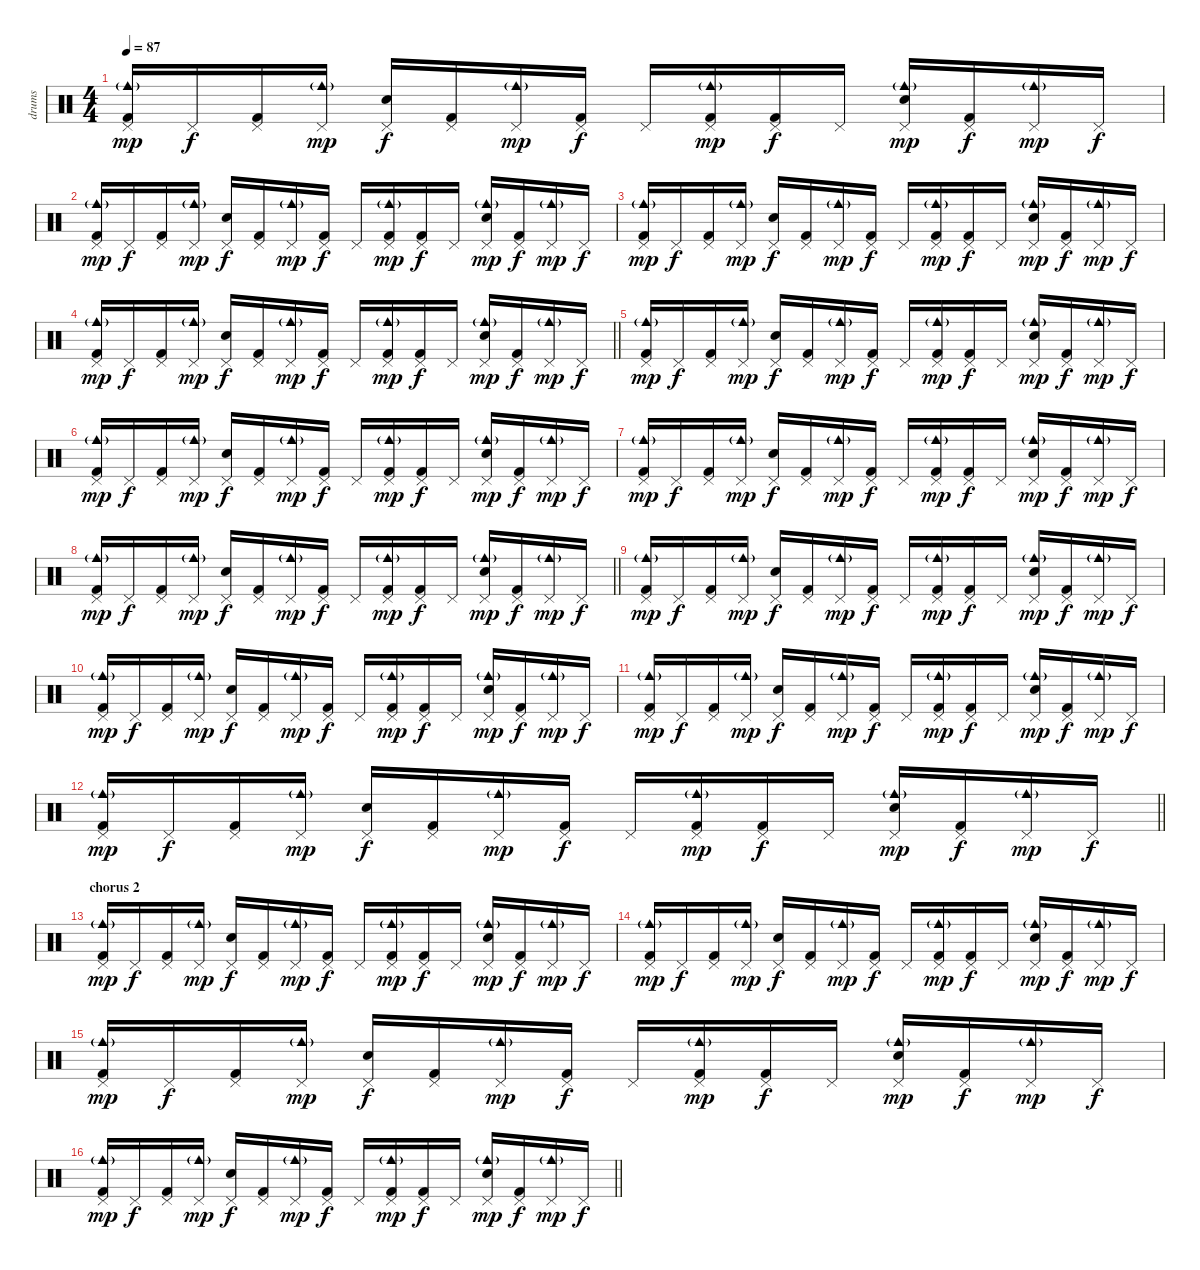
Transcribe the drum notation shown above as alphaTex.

\track ("drums" "drums") {instrument percussion}
\staff {score}
\articulation defaults
\ts (4 4)
\tempo 87
\clef neutral
\ks c
("Kick (hit) 2" "Pedal Hi-Hat (hit)" "Cowbell medium (hit)"{g}).16{dy mp} "Pedal Hi-Hat (hit)".16{dy f} ("Kick (hit) 2" "Pedal Hi-Hat (hit)").16 ("Pedal Hi-Hat (hit)" "Cowbell medium (hit)"{g}).16{dy mp} ("Snare (hit) 2" "Pedal Hi-Hat (hit)").16{dy f} ("Kick (hit) 2" "Pedal Hi-Hat (hit)").16 ("Pedal Hi-Hat (hit)" "Cowbell medium (hit)"{g}).16{dy mp} ("Kick (hit) 2" "Pedal Hi-Hat (hit)").16{dy f} "Pedal Hi-Hat (hit)".16 ("Kick (hit) 2" "Pedal Hi-Hat (hit)" "Cowbell medium (hit)"{g}).16{dy mp} ("Kick (hit) 2" "Pedal Hi-Hat (hit)").16{dy f} "Pedal Hi-Hat (hit)".16 ("Snare (hit) 2" "Pedal Hi-Hat (hit)" "Cowbell medium (hit)"{g}).16{dy mp} ("Kick (hit) 2" "Pedal Hi-Hat (hit)").16{dy f} ("Pedal Hi-Hat (hit)" "Cowbell medium (hit)"{g}).16{dy mp} "Pedal Hi-Hat (hit)".16{dy f} |
("Kick (hit) 2" "Pedal Hi-Hat (hit)" "Cowbell medium (hit)"{g}).16{dy mp} "Pedal Hi-Hat (hit)".16{dy f} ("Kick (hit) 2" "Pedal Hi-Hat (hit)").16 ("Pedal Hi-Hat (hit)" "Cowbell medium (hit)"{g}).16{dy mp} ("Snare (hit) 2" "Pedal Hi-Hat (hit)").16{dy f} ("Kick (hit) 2" "Pedal Hi-Hat (hit)").16 ("Pedal Hi-Hat (hit)" "Cowbell medium (hit)"{g}).16{dy mp} ("Kick (hit) 2" "Pedal Hi-Hat (hit)").16{dy f} "Pedal Hi-Hat (hit)".16 ("Kick (hit) 2" "Pedal Hi-Hat (hit)" "Cowbell medium (hit)"{g}).16{dy mp} ("Kick (hit) 2" "Pedal Hi-Hat (hit)").16{dy f} "Pedal Hi-Hat (hit)".16 ("Snare (hit) 2" "Pedal Hi-Hat (hit)" "Cowbell medium (hit)"{g}).16{dy mp} ("Kick (hit) 2" "Pedal Hi-Hat (hit)").16{dy f} ("Pedal Hi-Hat (hit)" "Cowbell medium (hit)"{g}).16{dy mp} "Pedal Hi-Hat (hit)".16{dy f} |
("Kick (hit) 2" "Pedal Hi-Hat (hit)" "Cowbell medium (hit)"{g}).16{dy mp} "Pedal Hi-Hat (hit)".16{dy f} ("Kick (hit) 2" "Pedal Hi-Hat (hit)").16 ("Pedal Hi-Hat (hit)" "Cowbell medium (hit)"{g}).16{dy mp} ("Snare (hit) 2" "Pedal Hi-Hat (hit)").16{dy f} ("Kick (hit) 2" "Pedal Hi-Hat (hit)").16 ("Pedal Hi-Hat (hit)" "Cowbell medium (hit)"{g}).16{dy mp} ("Kick (hit) 2" "Pedal Hi-Hat (hit)").16{dy f} "Pedal Hi-Hat (hit)".16 ("Kick (hit) 2" "Pedal Hi-Hat (hit)" "Cowbell medium (hit)"{g}).16{dy mp} ("Kick (hit) 2" "Pedal Hi-Hat (hit)").16{dy f} "Pedal Hi-Hat (hit)".16 ("Snare (hit) 2" "Pedal Hi-Hat (hit)" "Cowbell medium (hit)"{g}).16{dy mp} ("Kick (hit) 2" "Pedal Hi-Hat (hit)").16{dy f} ("Pedal Hi-Hat (hit)" "Cowbell medium (hit)"{g}).16{dy mp} "Pedal Hi-Hat (hit)".16{dy f} |
\barLineRight lightlight
("Kick (hit) 2" "Pedal Hi-Hat (hit)" "Cowbell medium (hit)"{g}).16{dy mp} "Pedal Hi-Hat (hit)".16{dy f} ("Kick (hit) 2" "Pedal Hi-Hat (hit)").16 ("Pedal Hi-Hat (hit)" "Cowbell medium (hit)"{g}).16{dy mp} ("Snare (hit) 2" "Pedal Hi-Hat (hit)").16{dy f} ("Kick (hit) 2" "Pedal Hi-Hat (hit)").16 ("Pedal Hi-Hat (hit)" "Cowbell medium (hit)"{g}).16{dy mp} ("Kick (hit) 2" "Pedal Hi-Hat (hit)").16{dy f} "Pedal Hi-Hat (hit)".16 ("Kick (hit) 2" "Pedal Hi-Hat (hit)" "Cowbell medium (hit)"{g}).16{dy mp} ("Kick (hit) 2" "Pedal Hi-Hat (hit)").16{dy f} "Pedal Hi-Hat (hit)".16 ("Snare (hit) 2" "Pedal Hi-Hat (hit)" "Cowbell medium (hit)"{g}).16{dy mp} ("Kick (hit) 2" "Pedal Hi-Hat (hit)").16{dy f} ("Pedal Hi-Hat (hit)" "Cowbell medium (hit)"{g}).16{dy mp} "Pedal Hi-Hat (hit)".16{dy f} |
("Kick (hit) 2" "Pedal Hi-Hat (hit)" "Cowbell medium (hit)"{g}).16{dy mp} "Pedal Hi-Hat (hit)".16{dy f} ("Kick (hit) 2" "Pedal Hi-Hat (hit)").16 ("Pedal Hi-Hat (hit)" "Cowbell medium (hit)"{g}).16{dy mp} ("Snare (hit) 2" "Pedal Hi-Hat (hit)").16{dy f} ("Kick (hit) 2" "Pedal Hi-Hat (hit)").16 ("Pedal Hi-Hat (hit)" "Cowbell medium (hit)"{g}).16{dy mp} ("Kick (hit) 2" "Pedal Hi-Hat (hit)").16{dy f} "Pedal Hi-Hat (hit)".16 ("Kick (hit) 2" "Pedal Hi-Hat (hit)" "Cowbell medium (hit)"{g}).16{dy mp} ("Kick (hit) 2" "Pedal Hi-Hat (hit)").16{dy f} "Pedal Hi-Hat (hit)".16 ("Snare (hit) 2" "Pedal Hi-Hat (hit)" "Cowbell medium (hit)"{g}).16{dy mp} ("Kick (hit) 2" "Pedal Hi-Hat (hit)").16{dy f} ("Pedal Hi-Hat (hit)" "Cowbell medium (hit)"{g}).16{dy mp} "Pedal Hi-Hat (hit)".16{dy f} |
("Kick (hit) 2" "Pedal Hi-Hat (hit)" "Cowbell medium (hit)"{g}).16{dy mp} "Pedal Hi-Hat (hit)".16{dy f} ("Kick (hit) 2" "Pedal Hi-Hat (hit)").16 ("Pedal Hi-Hat (hit)" "Cowbell medium (hit)"{g}).16{dy mp} ("Snare (hit) 2" "Pedal Hi-Hat (hit)").16{dy f} ("Kick (hit) 2" "Pedal Hi-Hat (hit)").16 ("Pedal Hi-Hat (hit)" "Cowbell medium (hit)"{g}).16{dy mp} ("Kick (hit) 2" "Pedal Hi-Hat (hit)").16{dy f} "Pedal Hi-Hat (hit)".16 ("Kick (hit) 2" "Pedal Hi-Hat (hit)" "Cowbell medium (hit)"{g}).16{dy mp} ("Kick (hit) 2" "Pedal Hi-Hat (hit)").16{dy f} "Pedal Hi-Hat (hit)".16 ("Snare (hit) 2" "Pedal Hi-Hat (hit)" "Cowbell medium (hit)"{g}).16{dy mp} ("Kick (hit) 2" "Pedal Hi-Hat (hit)").16{dy f} ("Pedal Hi-Hat (hit)" "Cowbell medium (hit)"{g}).16{dy mp} "Pedal Hi-Hat (hit)".16{dy f} |
("Kick (hit) 2" "Pedal Hi-Hat (hit)" "Cowbell medium (hit)"{g}).16{dy mp} "Pedal Hi-Hat (hit)".16{dy f} ("Kick (hit) 2" "Pedal Hi-Hat (hit)").16 ("Pedal Hi-Hat (hit)" "Cowbell medium (hit)"{g}).16{dy mp} ("Snare (hit) 2" "Pedal Hi-Hat (hit)").16{dy f} ("Kick (hit) 2" "Pedal Hi-Hat (hit)").16 ("Pedal Hi-Hat (hit)" "Cowbell medium (hit)"{g}).16{dy mp} ("Kick (hit) 2" "Pedal Hi-Hat (hit)").16{dy f} "Pedal Hi-Hat (hit)".16 ("Kick (hit) 2" "Pedal Hi-Hat (hit)" "Cowbell medium (hit)"{g}).16{dy mp} ("Kick (hit) 2" "Pedal Hi-Hat (hit)").16{dy f} "Pedal Hi-Hat (hit)".16 ("Snare (hit) 2" "Pedal Hi-Hat (hit)" "Cowbell medium (hit)"{g}).16{dy mp} ("Kick (hit) 2" "Pedal Hi-Hat (hit)").16{dy f} ("Pedal Hi-Hat (hit)" "Cowbell medium (hit)"{g}).16{dy mp} "Pedal Hi-Hat (hit)".16{dy f} |
\barLineRight lightlight
("Kick (hit) 2" "Pedal Hi-Hat (hit)" "Cowbell medium (hit)"{g}).16{dy mp} "Pedal Hi-Hat (hit)".16{dy f} ("Kick (hit) 2" "Pedal Hi-Hat (hit)").16 ("Pedal Hi-Hat (hit)" "Cowbell medium (hit)"{g}).16{dy mp} ("Snare (hit) 2" "Pedal Hi-Hat (hit)").16{dy f} ("Kick (hit) 2" "Pedal Hi-Hat (hit)").16 ("Pedal Hi-Hat (hit)" "Cowbell medium (hit)"{g}).16{dy mp} ("Kick (hit) 2" "Pedal Hi-Hat (hit)").16{dy f} "Pedal Hi-Hat (hit)".16 ("Kick (hit) 2" "Pedal Hi-Hat (hit)" "Cowbell medium (hit)"{g}).16{dy mp} ("Kick (hit) 2" "Pedal Hi-Hat (hit)").16{dy f} "Pedal Hi-Hat (hit)".16 ("Snare (hit) 2" "Pedal Hi-Hat (hit)" "Cowbell medium (hit)"{g}).16{dy mp} ("Kick (hit) 2" "Pedal Hi-Hat (hit)").16{dy f} ("Pedal Hi-Hat (hit)" "Cowbell medium (hit)"{g}).16{dy mp} "Pedal Hi-Hat (hit)".16{dy f} |
("Kick (hit) 2" "Pedal Hi-Hat (hit)" "Cowbell medium (hit)"{g}).16{dy mp} "Pedal Hi-Hat (hit)".16{dy f} ("Kick (hit) 2" "Pedal Hi-Hat (hit)").16 ("Pedal Hi-Hat (hit)" "Cowbell medium (hit)"{g}).16{dy mp} ("Snare (hit) 2" "Pedal Hi-Hat (hit)").16{dy f} ("Kick (hit) 2" "Pedal Hi-Hat (hit)").16 ("Pedal Hi-Hat (hit)" "Cowbell medium (hit)"{g}).16{dy mp} ("Kick (hit) 2" "Pedal Hi-Hat (hit)").16{dy f} "Pedal Hi-Hat (hit)".16 ("Kick (hit) 2" "Pedal Hi-Hat (hit)" "Cowbell medium (hit)"{g}).16{dy mp} ("Kick (hit) 2" "Pedal Hi-Hat (hit)").16{dy f} "Pedal Hi-Hat (hit)".16 ("Snare (hit) 2" "Pedal Hi-Hat (hit)" "Cowbell medium (hit)"{g}).16{dy mp} ("Kick (hit) 2" "Pedal Hi-Hat (hit)").16{dy f} ("Pedal Hi-Hat (hit)" "Cowbell medium (hit)"{g}).16{dy mp} "Pedal Hi-Hat (hit)".16{dy f} |
("Kick (hit) 2" "Pedal Hi-Hat (hit)" "Cowbell medium (hit)"{g}).16{dy mp} "Pedal Hi-Hat (hit)".16{dy f} ("Kick (hit) 2" "Pedal Hi-Hat (hit)").16 ("Pedal Hi-Hat (hit)" "Cowbell medium (hit)"{g}).16{dy mp} ("Snare (hit) 2" "Pedal Hi-Hat (hit)").16{dy f} ("Kick (hit) 2" "Pedal Hi-Hat (hit)").16 ("Pedal Hi-Hat (hit)" "Cowbell medium (hit)"{g}).16{dy mp} ("Kick (hit) 2" "Pedal Hi-Hat (hit)").16{dy f} "Pedal Hi-Hat (hit)".16 ("Kick (hit) 2" "Pedal Hi-Hat (hit)" "Cowbell medium (hit)"{g}).16{dy mp} ("Kick (hit) 2" "Pedal Hi-Hat (hit)").16{dy f} "Pedal Hi-Hat (hit)".16 ("Snare (hit) 2" "Pedal Hi-Hat (hit)" "Cowbell medium (hit)"{g}).16{dy mp} ("Kick (hit) 2" "Pedal Hi-Hat (hit)").16{dy f} ("Pedal Hi-Hat (hit)" "Cowbell medium (hit)"{g}).16{dy mp} "Pedal Hi-Hat (hit)".16{dy f} |
("Kick (hit) 2" "Pedal Hi-Hat (hit)" "Cowbell medium (hit)"{g}).16{dy mp} "Pedal Hi-Hat (hit)".16{dy f} ("Kick (hit) 2" "Pedal Hi-Hat (hit)").16 ("Pedal Hi-Hat (hit)" "Cowbell medium (hit)"{g}).16{dy mp} ("Snare (hit) 2" "Pedal Hi-Hat (hit)").16{dy f} ("Kick (hit) 2" "Pedal Hi-Hat (hit)").16 ("Pedal Hi-Hat (hit)" "Cowbell medium (hit)"{g}).16{dy mp} ("Kick (hit) 2" "Pedal Hi-Hat (hit)").16{dy f} "Pedal Hi-Hat (hit)".16 ("Kick (hit) 2" "Pedal Hi-Hat (hit)" "Cowbell medium (hit)"{g}).16{dy mp} ("Kick (hit) 2" "Pedal Hi-Hat (hit)").16{dy f} "Pedal Hi-Hat (hit)".16 ("Snare (hit) 2" "Pedal Hi-Hat (hit)" "Cowbell medium (hit)"{g}).16{dy mp} ("Kick (hit) 2" "Pedal Hi-Hat (hit)").16{dy f} ("Pedal Hi-Hat (hit)" "Cowbell medium (hit)"{g}).16{dy mp} "Pedal Hi-Hat (hit)".16{dy f} |
\barLineRight lightlight
("Kick (hit) 2" "Pedal Hi-Hat (hit)" "Cowbell medium (hit)"{g}).16{dy mp} "Pedal Hi-Hat (hit)".16{dy f} ("Kick (hit) 2" "Pedal Hi-Hat (hit)").16 ("Pedal Hi-Hat (hit)" "Cowbell medium (hit)"{g}).16{dy mp} ("Snare (hit) 2" "Pedal Hi-Hat (hit)").16{dy f} ("Kick (hit) 2" "Pedal Hi-Hat (hit)").16 ("Pedal Hi-Hat (hit)" "Cowbell medium (hit)"{g}).16{dy mp} ("Kick (hit) 2" "Pedal Hi-Hat (hit)").16{dy f} "Pedal Hi-Hat (hit)".16 ("Kick (hit) 2" "Pedal Hi-Hat (hit)" "Cowbell medium (hit)"{g}).16{dy mp} ("Kick (hit) 2" "Pedal Hi-Hat (hit)").16{dy f} "Pedal Hi-Hat (hit)".16 ("Snare (hit) 2" "Pedal Hi-Hat (hit)" "Cowbell medium (hit)"{g}).16{dy mp} ("Kick (hit) 2" "Pedal Hi-Hat (hit)").16{dy f} ("Pedal Hi-Hat (hit)" "Cowbell medium (hit)"{g}).16{dy mp} "Pedal Hi-Hat (hit)".16{dy f} |
\section ("" "chorus 2")
("Kick (hit) 2" "Pedal Hi-Hat (hit)" "Cowbell medium (hit)"{g}).16{dy mp} "Pedal Hi-Hat (hit)".16{dy f} ("Kick (hit) 2" "Pedal Hi-Hat (hit)").16 ("Pedal Hi-Hat (hit)" "Cowbell medium (hit)"{g}).16{dy mp} ("Snare (hit) 2" "Pedal Hi-Hat (hit)").16{dy f} ("Kick (hit) 2" "Pedal Hi-Hat (hit)").16 ("Pedal Hi-Hat (hit)" "Cowbell medium (hit)"{g}).16{dy mp} ("Kick (hit) 2" "Pedal Hi-Hat (hit)").16{dy f} "Pedal Hi-Hat (hit)".16 ("Kick (hit) 2" "Pedal Hi-Hat (hit)" "Cowbell medium (hit)"{g}).16{dy mp} ("Kick (hit) 2" "Pedal Hi-Hat (hit)").16{dy f} "Pedal Hi-Hat (hit)".16 ("Snare (hit) 2" "Pedal Hi-Hat (hit)" "Cowbell medium (hit)"{g}).16{dy mp} ("Kick (hit) 2" "Pedal Hi-Hat (hit)").16{dy f} ("Pedal Hi-Hat (hit)" "Cowbell medium (hit)"{g}).16{dy mp} "Pedal Hi-Hat (hit)".16{dy f} |
("Kick (hit) 2" "Pedal Hi-Hat (hit)" "Cowbell medium (hit)"{g}).16{dy mp} "Pedal Hi-Hat (hit)".16{dy f} ("Kick (hit) 2" "Pedal Hi-Hat (hit)").16 ("Pedal Hi-Hat (hit)" "Cowbell medium (hit)"{g}).16{dy mp} ("Snare (hit) 2" "Pedal Hi-Hat (hit)").16{dy f} ("Kick (hit) 2" "Pedal Hi-Hat (hit)").16 ("Pedal Hi-Hat (hit)" "Cowbell medium (hit)"{g}).16{dy mp} ("Kick (hit) 2" "Pedal Hi-Hat (hit)").16{dy f} "Pedal Hi-Hat (hit)".16 ("Kick (hit) 2" "Pedal Hi-Hat (hit)" "Cowbell medium (hit)"{g}).16{dy mp} ("Kick (hit) 2" "Pedal Hi-Hat (hit)").16{dy f} "Pedal Hi-Hat (hit)".16 ("Snare (hit) 2" "Pedal Hi-Hat (hit)" "Cowbell medium (hit)"{g}).16{dy mp} ("Kick (hit) 2" "Pedal Hi-Hat (hit)").16{dy f} ("Pedal Hi-Hat (hit)" "Cowbell medium (hit)"{g}).16{dy mp} "Pedal Hi-Hat (hit)".16{dy f} |
("Kick (hit) 2" "Pedal Hi-Hat (hit)" "Cowbell medium (hit)"{g}).16{dy mp} "Pedal Hi-Hat (hit)".16{dy f} ("Kick (hit) 2" "Pedal Hi-Hat (hit)").16 ("Pedal Hi-Hat (hit)" "Cowbell medium (hit)"{g}).16{dy mp} ("Snare (hit) 2" "Pedal Hi-Hat (hit)").16{dy f} ("Kick (hit) 2" "Pedal Hi-Hat (hit)").16 ("Pedal Hi-Hat (hit)" "Cowbell medium (hit)"{g}).16{dy mp} ("Kick (hit) 2" "Pedal Hi-Hat (hit)").16{dy f} "Pedal Hi-Hat (hit)".16 ("Kick (hit) 2" "Pedal Hi-Hat (hit)" "Cowbell medium (hit)"{g}).16{dy mp} ("Kick (hit) 2" "Pedal Hi-Hat (hit)").16{dy f} "Pedal Hi-Hat (hit)".16 ("Snare (hit) 2" "Pedal Hi-Hat (hit)" "Cowbell medium (hit)"{g}).16{dy mp} ("Kick (hit) 2" "Pedal Hi-Hat (hit)").16{dy f} ("Pedal Hi-Hat (hit)" "Cowbell medium (hit)"{g}).16{dy mp} "Pedal Hi-Hat (hit)".16{dy f} |
\barLineRight lightlight
("Kick (hit) 2" "Pedal Hi-Hat (hit)" "Cowbell medium (hit)"{g}).16{dy mp} "Pedal Hi-Hat (hit)".16{dy f} ("Kick (hit) 2" "Pedal Hi-Hat (hit)").16 ("Pedal Hi-Hat (hit)" "Cowbell medium (hit)"{g}).16{dy mp} ("Snare (hit) 2" "Pedal Hi-Hat (hit)").16{dy f} ("Kick (hit) 2" "Pedal Hi-Hat (hit)").16 ("Pedal Hi-Hat (hit)" "Cowbell medium (hit)"{g}).16{dy mp} ("Kick (hit) 2" "Pedal Hi-Hat (hit)").16{dy f} "Pedal Hi-Hat (hit)".16 ("Kick (hit) 2" "Pedal Hi-Hat (hit)" "Cowbell medium (hit)"{g}).16{dy mp} ("Kick (hit) 2" "Pedal Hi-Hat (hit)").16{dy f} "Pedal Hi-Hat (hit)".16 ("Snare (hit) 2" "Pedal Hi-Hat (hit)" "Cowbell medium (hit)"{g}).16{dy mp} ("Kick (hit) 2" "Pedal Hi-Hat (hit)").16{dy f} ("Pedal Hi-Hat (hit)" "Cowbell medium (hit)"{g}).16{dy mp} "Pedal Hi-Hat (hit)".16{dy f}
